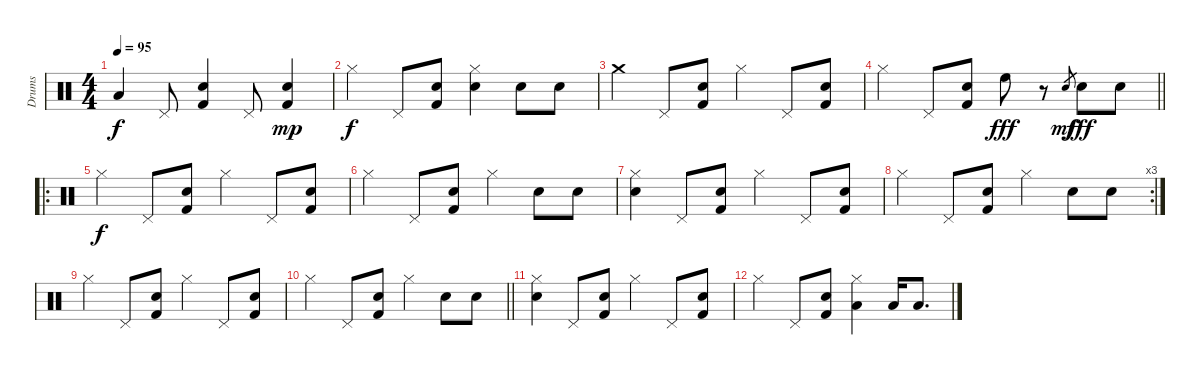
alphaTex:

\track ("Drums" "Drums") {instrument percussion}
\staff {score}
\articulation defaults
\ts (4 4)
\tempo 95
\clef neutral
\ks c "Low Floor Tom (hit)".4{dy f} "Pedal Hi-Hat (hit)".8
("Snare (hit) 2" "Kick (hit) 2").4 "Pedal Hi-Hat (hit)".8 ("Snare (hit) 2" "Kick (hit) 2").4{dy mp} |
"Hi-Hat (closed)".4{dy f} "Pedal Hi-Hat (hit)".8 ("Snare (hit) 2" "Kick (hit) 2").8 ("Hi-Hat (closed)" "Snare (hit) 2").4 "Snare (hit) 2".8 "Snare (hit) 2".8 |
"Crash medium (hit)".4 "Pedal Hi-Hat (hit)".8 ("Snare (hit) 2" "Kick (hit) 2").8 "Hi-Hat (closed)".4 "Pedal Hi-Hat (hit)".8 ("Snare (hit) 2" "Kick (hit) 2").8 |
\barLineRight lightlight "Hi-Hat (closed)".4 "Pedal Hi-Hat (hit)".8
("Snare (hit) 2" "Kick (hit) 2").8 "High Floor Tom (hit)".8{dy fff} r.8 "Snare (hit) 2".8{gr dy mf} "Snare (hit) 2".8{dy fff} "Snare (hit) 2".8 |
\ro "Hi-Hat (closed)".4{dy f} "Pedal Hi-Hat (hit)".8
("Snare (hit) 2" "Kick (hit) 2").8 "Hi-Hat (closed)".4 "Pedal Hi-Hat (hit)".8 ("Snare (hit) 2" "Kick (hit) 2").8 |
"Hi-Hat (closed)".4 "Pedal Hi-Hat (hit)".8 ("Snare (hit) 2" "Kick (hit) 2").8 "Hi-Hat (closed)".4 "Snare (hit) 2".8 "Snare (hit) 2".8 |
("Hi-Hat (closed)" "Snare (hit) 2").4 "Pedal Hi-Hat (hit)".8 ("Snare (hit) 2" "Kick (hit) 2").8 "Hi-Hat (closed)".4 "Pedal Hi-Hat (hit)".8 ("Snare (hit) 2" "Kick (hit) 2").8 |
\rc 3 "Hi-Hat (closed)".4 "Pedal Hi-Hat (hit)".8
("Snare (hit) 2" "Kick (hit) 2").8 "Hi-Hat (closed)".4 "Snare (hit) 2".8 "Snare (hit) 2".8 |
"Hi-Hat (closed)".4 "Pedal Hi-Hat (hit)".8 ("Snare (hit) 2" "Kick (hit) 2").8 "Hi-Hat (closed)".4 "Pedal Hi-Hat (hit)".8 ("Snare (hit) 2" "Kick (hit) 2").8 |
\barLineRight lightlight "Hi-Hat (closed)".4 "Pedal Hi-Hat (hit)".8
("Snare (hit) 2" "Kick (hit) 2").8 "Hi-Hat (closed)".4 "Snare (hit) 2".8 "Snare (hit) 2".8 |
("Hi-Hat (closed)" "Snare (hit) 2").4 "Pedal Hi-Hat (hit)".8 ("Snare (hit) 2" "Kick (hit) 2").8 "Hi-Hat (closed)".4 "Pedal Hi-Hat (hit)".8 ("Snare (hit) 2" "Kick (hit) 2").8 |
"Hi-Hat (closed)".4 "Pedal Hi-Hat (hit)".8 ("Snare (hit) 2" "Kick (hit) 2").8 ("Hi-Hat (closed)" "Low Floor Tom (hit)").4 "Low Floor Tom (hit)".16 "Low Floor Tom (hit)".8{d}
